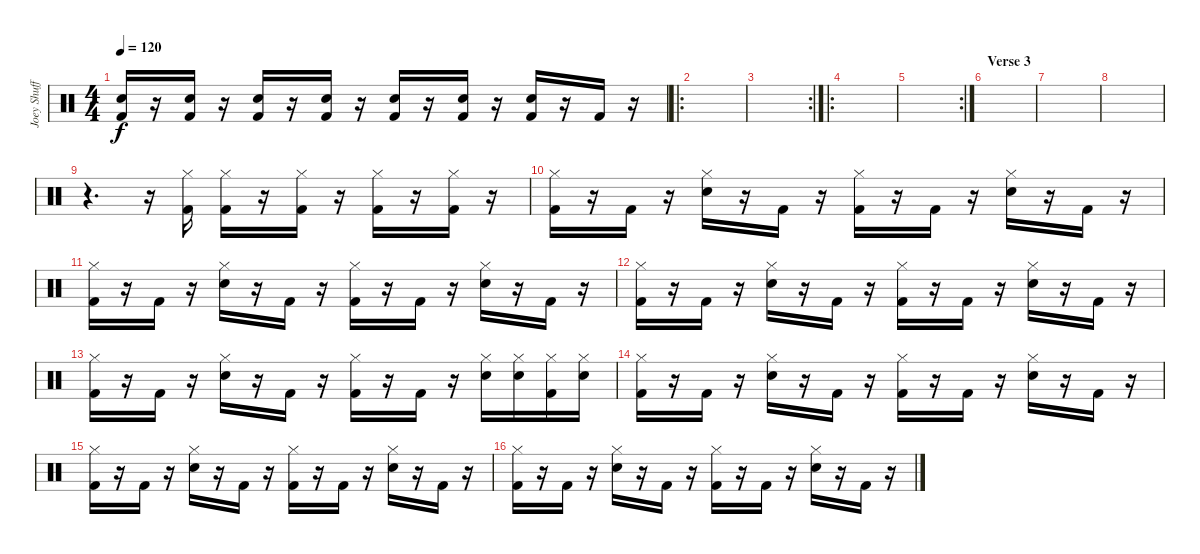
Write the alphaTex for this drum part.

\track ("Joey Shuffield" "Joey Shuff") {instrument percussion}
\staff {score}
\articulation defaults
\ts (4 4)
\tempo 120
\clef neutral
\ks c
("Kick (hit) 2" "Snare (hit) 2").16{dy f} r.16 ("Kick (hit) 2" "Snare (hit) 2").16 r.16 ("Kick (hit) 2" "Snare (hit) 2").16 r.16 ("Kick (hit) 2" "Snare (hit) 2").16 r.16 ("Kick (hit) 2" "Snare (hit) 2").16 r.16 ("Kick (hit) 2" "Snare (hit) 2").16 r.16 ("Kick (hit) 2" "Snare (hit) 2").16 r.16 "Kick (hit) 2".16 r.16 |
\ro
|
\rc 2
|
\ro
|
\rc 2
|
\section ("" "Verse 3")
|
|
|
r.4{d} r.16 ("Kick (hit) 2" "Hi-Hat (closed)").16 ("Kick (hit) 2" "Hi-Hat (closed)").16 r.16 ("Kick (hit) 2" "Hi-Hat (closed)").16 r.16 ("Kick (hit) 2" "Hi-Hat (closed)").16 r.16 ("Kick (hit) 2" "Hi-Hat (closed)").16 r.16 |
("Kick (hit) 2" "Hi-Hat (closed)").16 r.16 "Kick (hit) 2".16 r.16 ("Snare (hit) 2" "Hi-Hat (closed)").16 r.16 "Kick (hit) 2".16 r.16 ("Kick (hit) 2" "Hi-Hat (closed)").16 r.16 "Kick (hit) 2".16 r.16 ("Snare (hit) 2" "Hi-Hat (closed)").16 r.16 "Kick (hit) 2".16 r.16 |
("Kick (hit) 2" "Hi-Hat (closed)").16 r.16 "Kick (hit) 2".16 r.16 ("Snare (hit) 2" "Hi-Hat (closed)").16 r.16 "Kick (hit) 2".16 r.16 ("Kick (hit) 2" "Hi-Hat (closed)").16 r.16 "Kick (hit) 2".16 r.16 ("Snare (hit) 2" "Hi-Hat (closed)").16 r.16 "Kick (hit) 2".16 r.16 |
("Kick (hit) 2" "Hi-Hat (closed)").16 r.16 "Kick (hit) 2".16 r.16 ("Snare (hit) 2" "Hi-Hat (closed)").16 r.16 "Kick (hit) 2".16 r.16 ("Kick (hit) 2" "Hi-Hat (closed)").16 r.16 "Kick (hit) 2".16 r.16 ("Snare (hit) 2" "Hi-Hat (closed)").16 r.16 "Kick (hit) 2".16 r.16 |
("Kick (hit) 2" "Hi-Hat (closed)").16 r.16 "Kick (hit) 2".16 r.16 ("Snare (hit) 2" "Hi-Hat (closed)").16 r.16 "Kick (hit) 2".16 r.16 ("Kick (hit) 2" "Hi-Hat (closed)").16 r.16 "Kick (hit) 2".16 r.16 ("Snare (hit) 2" "Hi-Hat (closed)").16 ("Snare (hit) 2" "Hi-Hat (closed)").16 ("Kick (hit) 2" "Hi-Hat (closed)").16 ("Snare (hit) 2" "Hi-Hat (closed)").16 |
("Kick (hit) 2" "Hi-Hat (closed)").16 r.16 "Kick (hit) 2".16 r.16 ("Snare (hit) 2" "Hi-Hat (closed)").16 r.16 "Kick (hit) 2".16 r.16 ("Kick (hit) 2" "Hi-Hat (closed)").16 r.16 "Kick (hit) 2".16 r.16 ("Snare (hit) 2" "Hi-Hat (closed)").16 r.16 "Kick (hit) 2".16 r.16 |
("Kick (hit) 2" "Hi-Hat (closed)").16 r.16 "Kick (hit) 2".16 r.16 ("Snare (hit) 2" "Hi-Hat (closed)").16 r.16 "Kick (hit) 2".16 r.16 ("Kick (hit) 2" "Hi-Hat (closed)").16 r.16 "Kick (hit) 2".16 r.16 ("Snare (hit) 2" "Hi-Hat (closed)").16 r.16 "Kick (hit) 2".16 r.16 |
("Kick (hit) 2" "Hi-Hat (closed)").16 r.16 "Kick (hit) 2".16 r.16 ("Snare (hit) 2" "Hi-Hat (closed)").16 r.16 "Kick (hit) 2".16 r.16 ("Kick (hit) 2" "Hi-Hat (closed)").16 r.16 "Kick (hit) 2".16 r.16 ("Snare (hit) 2" "Hi-Hat (closed)").16 r.16 "Kick (hit) 2".16 r.16
